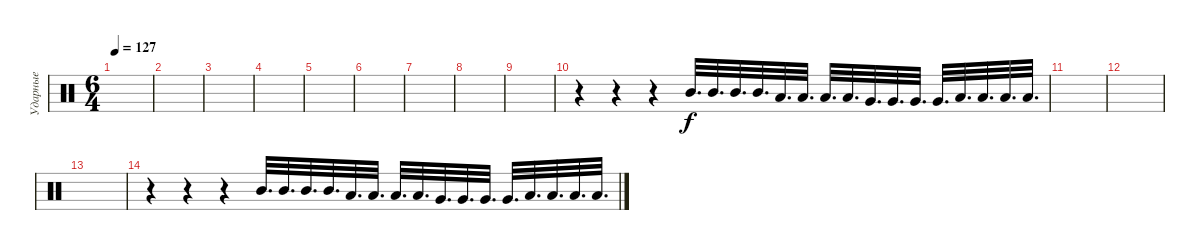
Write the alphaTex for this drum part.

\track ("Ударные" "Ударные") {instrument percussion}
\staff {score}
\articulation defaults
\ts (6 4)
\tempo 127
\clef neutral
\ks c
|
|
|
|
|
|
|
|
|
r.4 r.4 r.4 "Mid Tom (hit)".32{d} "Mid Tom (hit)".32{d} "Mid Tom (hit)".32{d} "Mid Tom (hit)".32{d} "Low Tom (hit)".32{d} "Low Tom (hit)".32{d} "Low Tom (hit)".32{d} "Low Tom (hit)".32{d} "Very Low Tom (hit)".32{d} "Very Low Tom (hit)".32{d} "Very Low Tom (hit)".32{d} "Very Low Tom (hit)".32{d} "Low Floor Tom (hit)".32{d} "Low Floor Tom (hit)".32{d} "Low Floor Tom (hit)".32{d} "Low Floor Tom (hit)".32{d} |
|
|
|
r.4 r.4 r.4 "Mid Tom (hit)".32{d} "Mid Tom (hit)".32{d} "Mid Tom (hit)".32{d} "Mid Tom (hit)".32{d} "Low Tom (hit)".32{d} "Low Tom (hit)".32{d} "Low Tom (hit)".32{d} "Low Tom (hit)".32{d} "Very Low Tom (hit)".32{d} "Very Low Tom (hit)".32{d} "Very Low Tom (hit)".32{d} "Very Low Tom (hit)".32{d} "Low Floor Tom (hit)".32{d} "Low Floor Tom (hit)".32{d} "Low Floor Tom (hit)".32{d} "Low Floor Tom (hit)".32{d}
